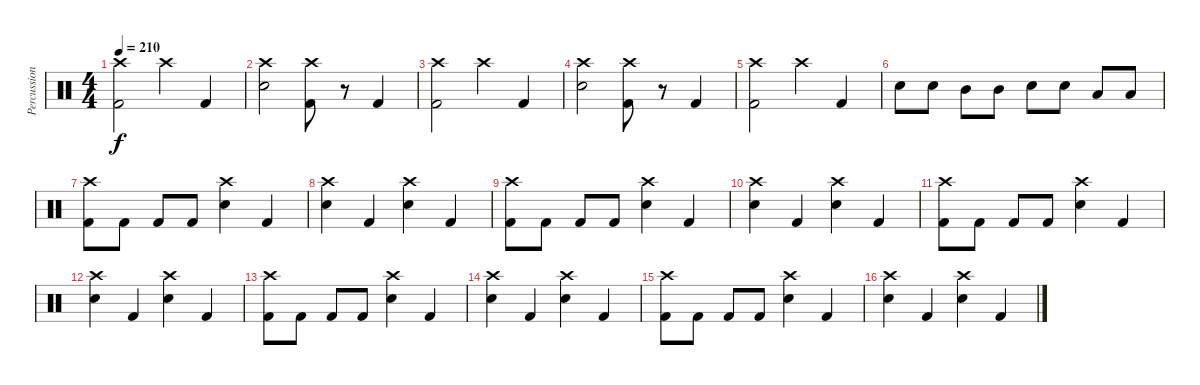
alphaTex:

\track ("Percussion" "Percussion") {instrument percussion}
\staff {score}
\articulation defaults
\ts (4 4)
\tempo 210
\clef neutral
\ks c
("Crash high (hit)" "Kick (hit) 2").2{dy f} "Crash high (hit)".4 "Kick (hit) 2".4 |
("Crash high (hit)" "Electric Snare (hit)").2 ("Crash high (hit)" "Kick (hit) 2").8 r.8 "Kick (hit) 2".4 |
("Crash high (hit)" "Kick (hit) 2").2 "Crash high (hit)".4 "Kick (hit) 2".4 |
("Crash high (hit)" "Electric Snare (hit)").2 ("Crash high (hit)" "Kick (hit) 2").8 r.8 "Kick (hit) 2".4 |
("Crash high (hit)" "Kick (hit) 2").2 "Crash high (hit)".4 "Kick (hit) 2".4 |
"Electric Snare (hit)".8 "Electric Snare (hit)".8 "Mid Tom (hit)".8 "Mid Tom (hit)".8 "Electric Snare (hit)".8 "Electric Snare (hit)".8 "Low Tom (hit)".8 "Low Tom (hit)".8 |
("Crash high (hit)" "Kick (hit) 2").8 "Kick (hit) 2".8 "Kick (hit) 2".8 "Kick (hit) 2".8 ("Crash high (hit)" "Electric Snare (hit)").4 "Kick (hit) 2".4 |
("Crash high (hit)" "Electric Snare (hit)").4 "Kick (hit) 2".4 ("Crash high (hit)" "Electric Snare (hit)").4 "Kick (hit) 2".4 |
("Crash high (hit)" "Kick (hit) 2").8 "Kick (hit) 2".8 "Kick (hit) 2".8 "Kick (hit) 2".8 ("Crash high (hit)" "Electric Snare (hit)").4 "Kick (hit) 2".4 |
("Crash high (hit)" "Electric Snare (hit)").4 "Kick (hit) 2".4 ("Crash high (hit)" "Electric Snare (hit)").4 "Kick (hit) 2".4 |
("Crash high (hit)" "Kick (hit) 2").8 "Kick (hit) 2".8 "Kick (hit) 2".8 "Kick (hit) 2".8 ("Crash high (hit)" "Electric Snare (hit)").4 "Kick (hit) 2".4 |
("Crash high (hit)" "Electric Snare (hit)").4 "Kick (hit) 2".4 ("Crash high (hit)" "Electric Snare (hit)").4 "Kick (hit) 2".4 |
("Crash high (hit)" "Kick (hit) 2").8 "Kick (hit) 2".8 "Kick (hit) 2".8 "Kick (hit) 2".8 ("Crash high (hit)" "Electric Snare (hit)").4 "Kick (hit) 2".4 |
("Crash high (hit)" "Electric Snare (hit)").4 "Kick (hit) 2".4 ("Crash high (hit)" "Electric Snare (hit)").4 "Kick (hit) 2".4 |
("Crash high (hit)" "Kick (hit) 2").8 "Kick (hit) 2".8 "Kick (hit) 2".8 "Kick (hit) 2".8 ("Crash high (hit)" "Electric Snare (hit)").4 "Kick (hit) 2".4 |
("Crash high (hit)" "Electric Snare (hit)").4 "Kick (hit) 2".4 ("Crash high (hit)" "Electric Snare (hit)").4 "Kick (hit) 2".4
